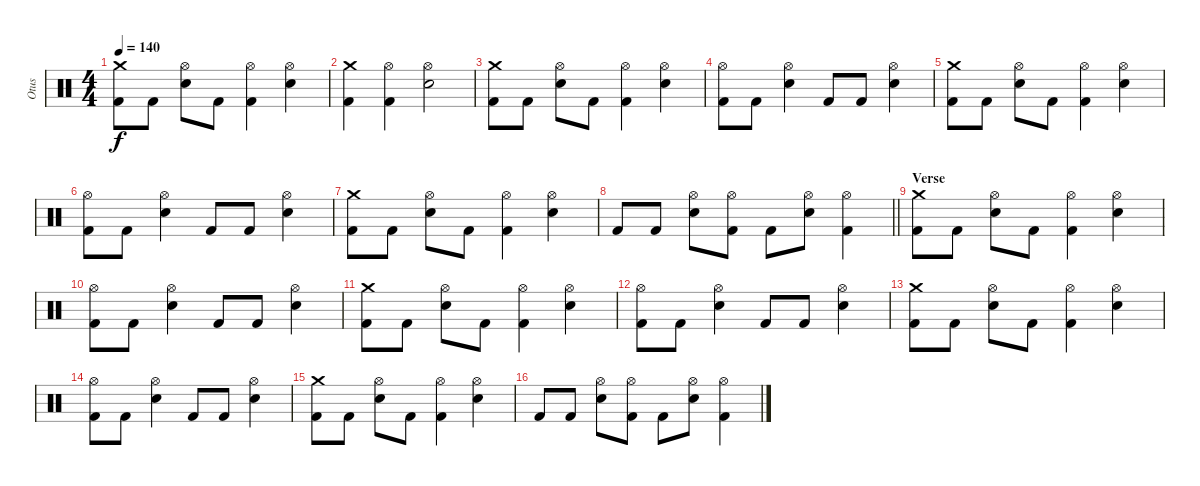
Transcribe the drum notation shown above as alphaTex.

\track ("Otus" "Otus") {instrument percussion}
\staff {score}
\articulation defaults
\ts (4 4)
\tempo 140
\clef neutral
\ks c
("Crash medium (hit)" "Kick (hit) 2").8{dy f} "Kick (hit) 2".8 ("Hi-Hat (open)" "Electric Snare (hit)").8 "Kick (hit) 2".8 ("Hi-Hat (open)" "Kick (hit) 2").4 ("Hi-Hat (open)" "Electric Snare (hit)").4 |
("Crash medium (hit)" "Kick (hit) 2").4 ("Hi-Hat (open)" "Kick (hit) 2").4 ("Hi-Hat (open)" "Electric Snare (hit)").2 |
("Crash medium (hit)" "Kick (hit) 2").8 "Kick (hit) 2".8 ("Hi-Hat (open)" "Electric Snare (hit)").8 "Kick (hit) 2".8 ("Hi-Hat (open)" "Kick (hit) 2").4 ("Hi-Hat (open)" "Electric Snare (hit)").4 |
("Hi-Hat (open)" "Kick (hit) 2").8 "Kick (hit) 2".8 ("Hi-Hat (open)" "Electric Snare (hit)").4 "Kick (hit) 2".8 "Kick (hit) 2".8 ("Hi-Hat (open)" "Electric Snare (hit)").4 |
("Crash medium (hit)" "Kick (hit) 2").8 "Kick (hit) 2".8 ("Hi-Hat (open)" "Electric Snare (hit)").8 "Kick (hit) 2".8 ("Hi-Hat (open)" "Kick (hit) 2").4 ("Hi-Hat (open)" "Electric Snare (hit)").4 |
("Hi-Hat (open)" "Kick (hit) 2").8 "Kick (hit) 2".8 ("Hi-Hat (open)" "Electric Snare (hit)").4 "Kick (hit) 2".8 "Kick (hit) 2".8 ("Hi-Hat (open)" "Electric Snare (hit)").4 |
("Crash medium (hit)" "Kick (hit) 2").8 "Kick (hit) 2".8 ("Hi-Hat (open)" "Electric Snare (hit)").8 "Kick (hit) 2".8 ("Hi-Hat (open)" "Kick (hit) 2").4 ("Hi-Hat (open)" "Electric Snare (hit)").4 |
\barLineRight lightlight "Kick (hit) 2".8 "Kick (hit) 2".8
("Hi-Hat (open)" "Electric Snare (hit)").8 ("Hi-Hat (open)" "Kick (hit) 2").8 "Kick (hit) 2".8 ("Hi-Hat (open)" "Electric Snare (hit)").8 ("Hi-Hat (open)" "Kick (hit) 2").4 |
\section ("" "Verse")
("Crash medium (hit)" "Kick (hit) 2").8 "Kick (hit) 2".8 ("Hi-Hat (open)" "Electric Snare (hit)").8 "Kick (hit) 2".8 ("Hi-Hat (open)" "Kick (hit) 2").4 ("Hi-Hat (open)" "Electric Snare (hit)").4 |
("Hi-Hat (open)" "Kick (hit) 2").8 "Kick (hit) 2".8 ("Hi-Hat (open)" "Electric Snare (hit)").4 "Kick (hit) 2".8 "Kick (hit) 2".8 ("Hi-Hat (open)" "Electric Snare (hit)").4 |
("Crash medium (hit)" "Kick (hit) 2").8 "Kick (hit) 2".8 ("Hi-Hat (open)" "Electric Snare (hit)").8 "Kick (hit) 2".8 ("Hi-Hat (open)" "Kick (hit) 2").4 ("Hi-Hat (open)" "Electric Snare (hit)").4 |
("Hi-Hat (open)" "Kick (hit) 2").8 "Kick (hit) 2".8 ("Hi-Hat (open)" "Electric Snare (hit)").4 "Kick (hit) 2".8 "Kick (hit) 2".8 ("Hi-Hat (open)" "Electric Snare (hit)").4 |
("Crash medium (hit)" "Kick (hit) 2").8 "Kick (hit) 2".8 ("Hi-Hat (open)" "Electric Snare (hit)").8 "Kick (hit) 2".8 ("Hi-Hat (open)" "Kick (hit) 2").4 ("Hi-Hat (open)" "Electric Snare (hit)").4 |
("Hi-Hat (open)" "Kick (hit) 2").8 "Kick (hit) 2".8 ("Hi-Hat (open)" "Electric Snare (hit)").4 "Kick (hit) 2".8 "Kick (hit) 2".8 ("Hi-Hat (open)" "Electric Snare (hit)").4 |
("Crash medium (hit)" "Kick (hit) 2").8 "Kick (hit) 2".8 ("Hi-Hat (open)" "Electric Snare (hit)").8 "Kick (hit) 2".8 ("Hi-Hat (open)" "Kick (hit) 2").4 ("Hi-Hat (open)" "Electric Snare (hit)").4 |
"Kick (hit) 2".8 "Kick (hit) 2".8 ("Hi-Hat (open)" "Electric Snare (hit)").8 ("Hi-Hat (open)" "Kick (hit) 2").8 "Kick (hit) 2".8 ("Hi-Hat (open)" "Electric Snare (hit)").8 ("Hi-Hat (open)" "Kick (hit) 2").4
